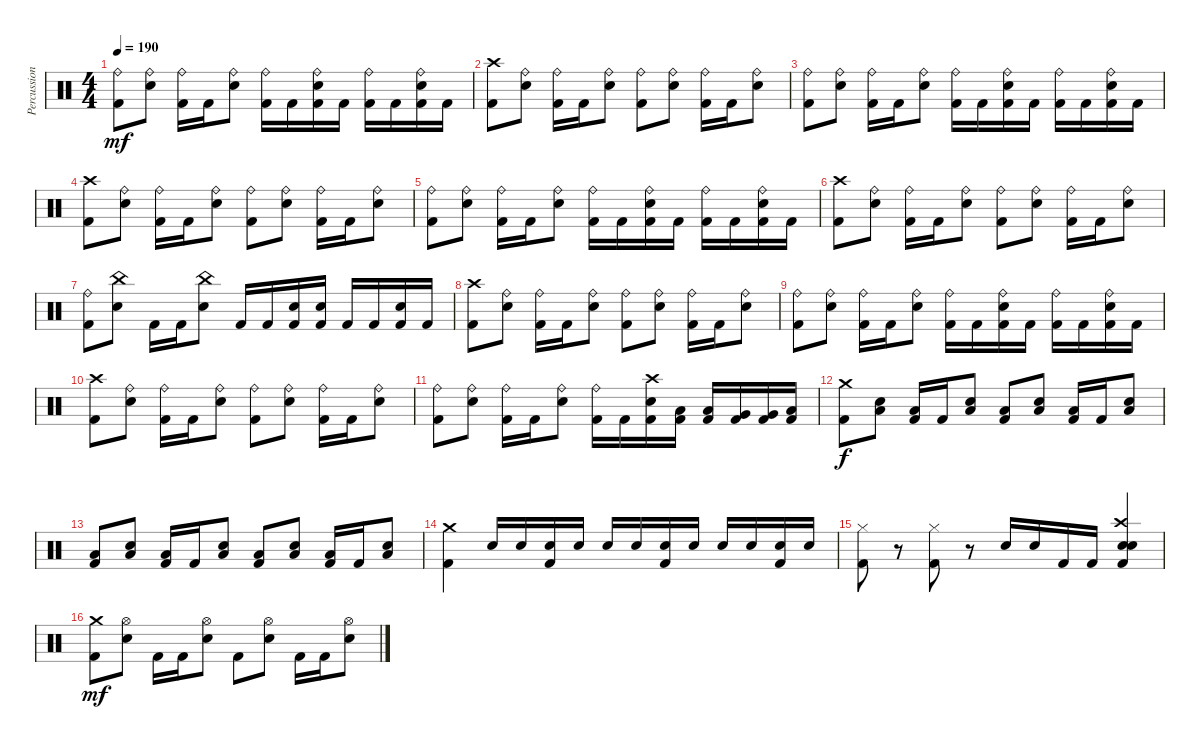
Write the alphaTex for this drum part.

\track ("Percussion" "Percussion") {instrument percussion}
\staff {score}
\articulation defaults
\ts (4 4)
\tempo 190
\clef neutral
\ks c
("Ride (bell)" "Kick (hit) 2").8{dy mf} ("Ride (bell)" "Electric Snare (hit)").8 ("Ride (bell)" "Kick (hit) 2").16 "Kick (hit) 2".16 ("Ride (bell)" "Electric Snare (hit)").8 ("Ride (bell)" "Kick (hit) 2").16 "Kick (hit) 2".16 ("Ride (bell)" "Electric Snare (hit)" "Kick (hit) 2").16 "Kick (hit) 2".16 ("Ride (bell)" "Kick (hit) 2").16 "Kick (hit) 2".16 ("Ride (bell)" "Electric Snare (hit)" "Kick (hit) 2").16 "Kick (hit) 2".16 |
("Crash high (hit)" "Kick (hit) 2").8 ("Ride (bell)" "Electric Snare (hit)").8 ("Ride (bell)" "Kick (hit) 2").16 "Kick (hit) 2".16 ("Ride (bell)" "Electric Snare (hit)").8 ("Ride (bell)" "Kick (hit) 2").8 ("Ride (bell)" "Electric Snare (hit)").8 ("Ride (bell)" "Kick (hit) 2").16 "Kick (hit) 2".16 ("Ride (bell)" "Electric Snare (hit)").8 |
("Ride (bell)" "Kick (hit) 2").8 ("Ride (bell)" "Electric Snare (hit)").8 ("Ride (bell)" "Kick (hit) 2").16 "Kick (hit) 2".16 ("Ride (bell)" "Electric Snare (hit)").8 ("Ride (bell)" "Kick (hit) 2").16 "Kick (hit) 2".16 ("Ride (bell)" "Electric Snare (hit)" "Kick (hit) 2").16 "Kick (hit) 2".16 ("Ride (bell)" "Kick (hit) 2").16 "Kick (hit) 2".16 ("Ride (bell)" "Electric Snare (hit)" "Kick (hit) 2").16 "Kick (hit) 2".16 |
("Crash high (hit)" "Kick (hit) 2").8 ("Ride (bell)" "Electric Snare (hit)").8 ("Ride (bell)" "Kick (hit) 2").16 "Kick (hit) 2".16 ("Ride (bell)" "Electric Snare (hit)").8 ("Ride (bell)" "Kick (hit) 2").8 ("Ride (bell)" "Electric Snare (hit)").8 ("Ride (bell)" "Kick (hit) 2").16 "Kick (hit) 2".16 ("Ride (bell)" "Electric Snare (hit)").8 |
("Ride (bell)" "Kick (hit) 2").8 ("Ride (bell)" "Electric Snare (hit)").8 ("Ride (bell)" "Kick (hit) 2").16 "Kick (hit) 2".16 ("Ride (bell)" "Electric Snare (hit)").8 ("Ride (bell)" "Kick (hit) 2").16 "Kick (hit) 2".16 ("Ride (bell)" "Electric Snare (hit)" "Kick (hit) 2").16 "Kick (hit) 2".16 ("Ride (bell)" "Kick (hit) 2").16 "Kick (hit) 2".16 ("Ride (bell)" "Electric Snare (hit)" "Kick (hit) 2").16 "Kick (hit) 2".16 |
("Crash high (hit)" "Kick (hit) 2").8 ("Ride (bell)" "Electric Snare (hit)").8 ("Ride (bell)" "Kick (hit) 2").16 "Kick (hit) 2".16 ("Ride (bell)" "Electric Snare (hit)").8 ("Ride (bell)" "Kick (hit) 2").8 ("Ride (bell)" "Electric Snare (hit)").8 ("Ride (bell)" "Kick (hit) 2").16 "Kick (hit) 2".16 ("Ride (bell)" "Electric Snare (hit)").8 |
("Ride (bell)" "Kick (hit) 2").8 ("China (hit)" "Electric Snare (hit)").8 "Kick (hit) 2".16 "Kick (hit) 2".16 ("China (hit)" "Electric Snare (hit)").8 "Kick (hit) 2".16 "Kick (hit) 2".16 ("Electric Snare (hit)" "Kick (hit) 2").16 ("Electric Snare (hit)" "Kick (hit) 2").16 "Kick (hit) 2".16 "Kick (hit) 2".16 ("Electric Snare (hit)" "Kick (hit) 2").16 "Kick (hit) 2".16 |
("Crash high (hit)" "Kick (hit) 2").8 ("Ride (bell)" "Electric Snare (hit)").8 ("Ride (bell)" "Kick (hit) 2").16 "Kick (hit) 2".16 ("Ride (bell)" "Electric Snare (hit)").8 ("Ride (bell)" "Kick (hit) 2").8 ("Ride (bell)" "Electric Snare (hit)").8 ("Ride (bell)" "Kick (hit) 2").16 "Kick (hit) 2".16 ("Ride (bell)" "Electric Snare (hit)").8 |
("Ride (bell)" "Kick (hit) 2").8 ("Ride (bell)" "Electric Snare (hit)").8 ("Ride (bell)" "Kick (hit) 2").16 "Kick (hit) 2".16 ("Ride (bell)" "Electric Snare (hit)").8 ("Ride (bell)" "Kick (hit) 2").16 "Kick (hit) 2".16 ("Ride (bell)" "Electric Snare (hit)" "Kick (hit) 2").16 "Kick (hit) 2".16 ("Ride (bell)" "Kick (hit) 2").16 "Kick (hit) 2".16 ("Ride (bell)" "Electric Snare (hit)" "Kick (hit) 2").16 "Kick (hit) 2".16 |
("Crash high (hit)" "Kick (hit) 2").8 ("Ride (bell)" "Electric Snare (hit)").8 ("Ride (bell)" "Kick (hit) 2").16 "Kick (hit) 2".16 ("Ride (bell)" "Electric Snare (hit)").8 ("Ride (bell)" "Kick (hit) 2").8 ("Ride (bell)" "Electric Snare (hit)").8 ("Ride (bell)" "Kick (hit) 2").16 "Kick (hit) 2".16 ("Ride (bell)" "Electric Snare (hit)").8 |
("Ride (bell)" "Kick (hit) 2").8 ("Ride (bell)" "Electric Snare (hit)").8 ("Ride (bell)" "Kick (hit) 2").16 "Kick (hit) 2".16 ("Ride (bell)" "Electric Snare (hit)").8 ("Ride (bell)" "Kick (hit) 2").16 "Kick (hit) 2".16 ("Crash high (hit)" "Electric Snare (hit)" "Kick (hit) 2").16 ("Low Tom (hit)" "Kick (hit) 2").16 ("Low Tom (hit)" "Kick (hit) 2").16 ("Very Low Tom (hit)" "Kick (hit) 2").16 ("Very Low Tom (hit)" "Kick (hit) 2").16 ("Low Floor Tom (hit)" "Kick (hit) 2").16 |
("Crash medium (hit)" "Kick (hit) 2").8{dy f} ("Low Floor Tom (hit)" "Electric Snare (hit)").8 ("Low Floor Tom (hit)" "Kick (hit) 2").16 "Kick (hit) 2".16 ("Low Floor Tom (hit)" "Electric Snare (hit)").8 ("Low Floor Tom (hit)" "Kick (hit) 2").8 ("Low Floor Tom (hit)" "Electric Snare (hit)").8 ("Low Floor Tom (hit)" "Kick (hit) 2").16 "Kick (hit) 2".16 ("Low Floor Tom (hit)" "Electric Snare (hit)").8 |
("Low Floor Tom (hit)" "Kick (hit) 2").8 ("Low Floor Tom (hit)" "Electric Snare (hit)").8 ("Low Floor Tom (hit)" "Kick (hit) 2").16 "Kick (hit) 2".16 ("Low Floor Tom (hit)" "Electric Snare (hit)").8 ("Low Floor Tom (hit)" "Kick (hit) 2").8 ("Low Floor Tom (hit)" "Electric Snare (hit)").8 ("Low Floor Tom (hit)" "Kick (hit) 2").16 "Kick (hit) 2".16 ("Low Floor Tom (hit)" "Electric Snare (hit)").8 |
("Crash medium (hit)" "Kick (hit) 2").4 "Electric Snare (hit)".16 "Electric Snare (hit)".16 ("Electric Snare (hit)" "Kick (hit) 2").16 "Electric Snare (hit)".16 "Electric Snare (hit)".16 "Electric Snare (hit)".16 ("Electric Snare (hit)" "Kick (hit) 2").16 "Electric Snare (hit)".16 "Electric Snare (hit)".16 "Electric Snare (hit)".16 ("Electric Snare (hit)" "Kick (hit) 2").16 "Electric Snare (hit)".16 |
("Hi-Hat (closed)" "Kick (hit) 2").8 r.8 ("Hi-Hat (closed)" "Kick (hit) 2").8 r.8 "Electric Snare (hit)".16 "Electric Snare (hit)".16 "Kick (hit) 2".16 "Kick (hit) 2".16 ("Crash high (hit)" "Hand Clap (hit)" "Electric Snare (hit)" "Kick (hit) 2").4 |
("Crash medium (hit)" "Kick (hit) 2").8{dy mf} ("Hi-Hat (open)" "Electric Snare (hit)").8 "Kick (hit) 2".16 "Kick (hit) 2".16 ("Hi-Hat (open)" "Electric Snare (hit)").8 "Kick (hit) 2".8 ("Hi-Hat (open)" "Electric Snare (hit)").8 "Kick (hit) 2".16 "Kick (hit) 2".16 ("Hi-Hat (open)" "Electric Snare (hit)").8
